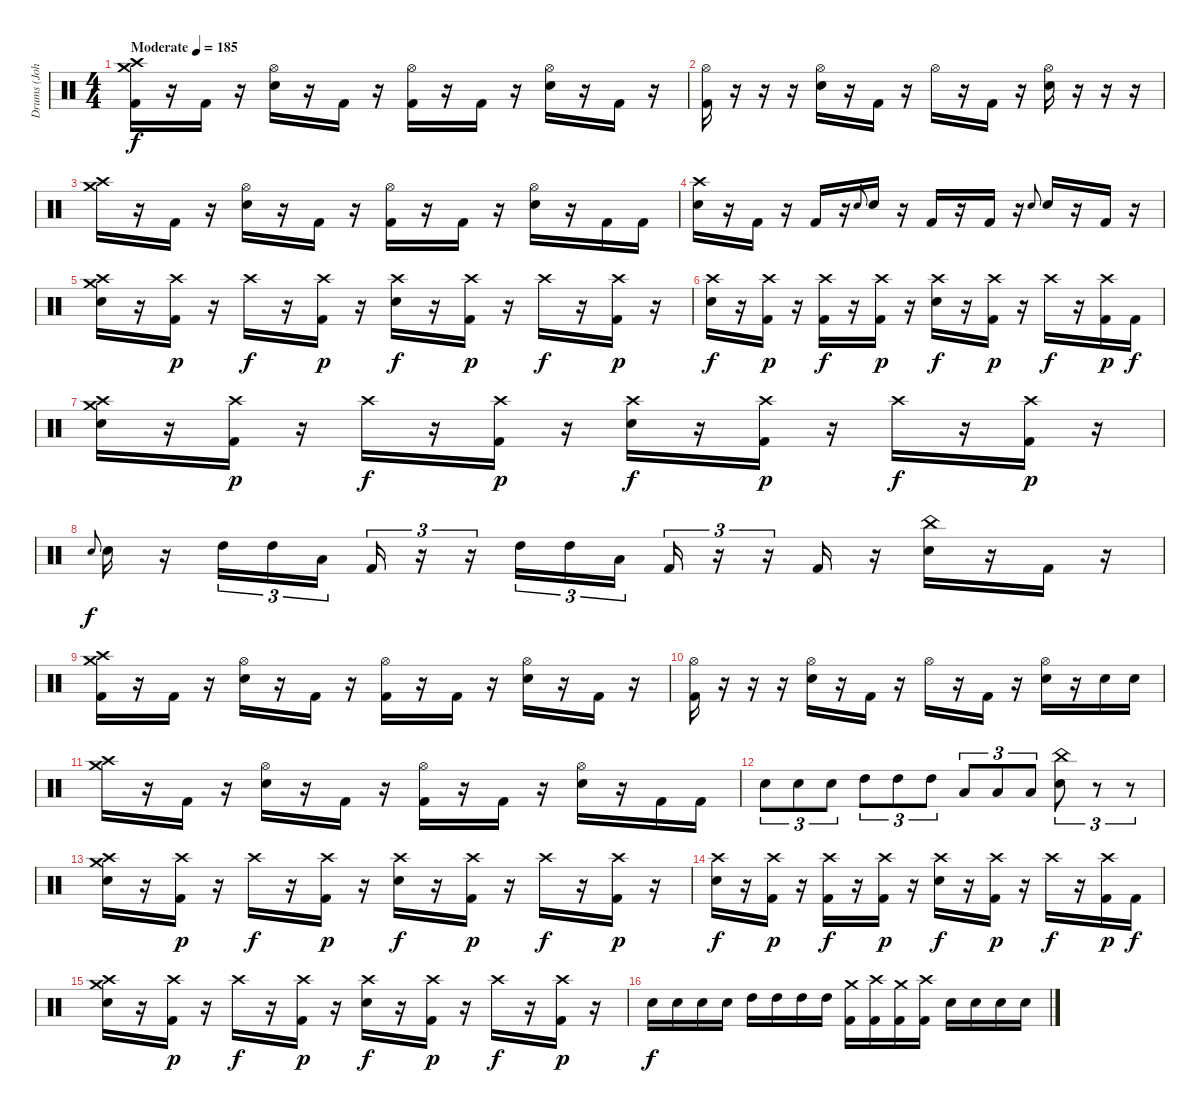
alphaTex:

\track ("Drums (Johno)" "Drums (Joh") {instrument percussion}
\staff {score}
\articulation defaults
\ts (4 4)
\tempo (185 "Moderate")
\clef neutral
\ks c
("Crash medium (hit)" "Crash high (hit)" "Kick (hit) 2").16{dy f} r.16 "Kick (hit) 2".16 r.16 ("Hi-Hat (open)" "Electric Snare (hit)").16 r.16 "Kick (hit) 2".16 r.16 ("Hi-Hat (open)" "Kick (hit) 2").16 r.16 "Kick (hit) 2".16 r.16 ("Hi-Hat (open)" "Electric Snare (hit)").16 r.16 "Kick (hit) 2".16 r.16 |
("Hi-Hat (open)" "Kick (hit) 2").16 r.16 r.16 r.16 ("Hi-Hat (open)" "Electric Snare (hit)").16 r.16 "Kick (hit) 2".16 r.16 "Hi-Hat (open)".16 r.16 "Kick (hit) 2".16 r.16 ("Hi-Hat (open)" "Electric Snare (hit)").16 r.16 r.16 r.16 |
("Crash medium (hit)" "Crash high (hit)").16 r.16 "Kick (hit) 2".16 r.16 ("Hi-Hat (open)" "Electric Snare (hit)").16 r.16 "Kick (hit) 2".16 r.16 ("Hi-Hat (open)" "Kick (hit) 2").16 r.16 "Kick (hit) 2".16 r.16 ("Hi-Hat (open)" "Electric Snare (hit)").16 r.16 "Kick (hit) 2".16 "Kick (hit) 2".16 |
("Crash high (hit)" "Electric Snare (hit)").16 r.16 "Kick (hit) 2".16 r.16 "Kick (hit) 2".16 r.16 "Electric Snare (hit)".8{gr onbeat} "Electric Snare (hit)".16 r.16 "Kick (hit) 2".16 r.16 "Kick (hit) 2".16 r.16 "Electric Snare (hit)".8{gr onbeat} "Electric Snare (hit)".16 r.16 "Kick (hit) 2".16 r.16 |
("Crash medium (hit)" "Crash high (hit)" "Electric Snare (hit)").16 r.16 ("Crash high (hit)" "Kick (hit) 2").16{dy p} r.16 "Crash high (hit)".16{dy f} r.16 ("Crash high (hit)" "Kick (hit) 2").16{dy p} r.16 ("Crash high (hit)" "Electric Snare (hit)").16{dy f} r.16 ("Crash high (hit)" "Kick (hit) 2").16{dy p} r.16 "Crash high (hit)".16{dy f} r.16 ("Crash high (hit)" "Kick (hit) 2").16{dy p} r.16 |
("Crash high (hit)" "Electric Snare (hit)").16{dy f} r.16 ("Crash high (hit)" "Kick (hit) 2").16{dy p} r.16 ("Crash high (hit)" "Kick (hit) 2").16{dy f} r.16 ("Crash high (hit)" "Kick (hit) 2").16{dy p} r.16 ("Crash high (hit)" "Electric Snare (hit)").16{dy f} r.16 ("Crash high (hit)" "Kick (hit) 2").16{dy p} r.16 "Crash high (hit)".16{dy f} r.16 ("Crash high (hit)" "Kick (hit) 2").16{dy p} "Kick (hit) 2".16{dy f} |
("Crash medium (hit)" "Crash high (hit)" "Electric Snare (hit)").16 r.16 ("Crash high (hit)" "Kick (hit) 2").16{dy p} r.16 "Crash high (hit)".16{dy f} r.16 ("Crash high (hit)" "Kick (hit) 2").16{dy p} r.16 ("Crash high (hit)" "Electric Snare (hit)").16{dy f} r.16 ("Crash high (hit)" "Kick (hit) 2").16{dy p} r.16 "Crash high (hit)".16{dy f} r.16 ("Crash high (hit)" "Kick (hit) 2").16{dy p} r.16 |
"Electric Snare (hit)".8{gr onbeat dy f} "Electric Snare (hit)".16 r.16 "High Tom (hit)".16{tu (3 2)} "High Tom (hit)".16{tu (3 2)} "Low Floor Tom (hit)".16{tu (3 2)} "Kick (hit) 2".16{tu (3 2)} r.16{tu (3 2)} r.16{tu (3 2)} "High Tom (hit)".16{tu (3 2)} "High Tom (hit)".16{tu (3 2)} "Low Floor Tom (hit)".16{tu (3 2)} "Kick (hit) 2".16{tu (3 2)} r.16{tu (3 2)} r.16{tu (3 2)} "Kick (hit) 2".16 r.16 ("China (hit)" "Electric Snare (hit)").16 r.16 "Kick (hit) 2".16 r.16 |
("Crash medium (hit)" "Crash high (hit)" "Kick (hit) 2").16 r.16 "Kick (hit) 2".16 r.16 ("Hi-Hat (open)" "Electric Snare (hit)").16 r.16 "Kick (hit) 2".16 r.16 ("Hi-Hat (open)" "Kick (hit) 2").16 r.16 "Kick (hit) 2".16 r.16 ("Hi-Hat (open)" "Electric Snare (hit)").16 r.16 "Kick (hit) 2".16 r.16 |
("Hi-Hat (open)" "Kick (hit) 2").16 r.16 r.16 r.16 ("Hi-Hat (open)" "Electric Snare (hit)").16 r.16 "Kick (hit) 2".16 r.16 "Hi-Hat (open)".16 r.16 "Kick (hit) 2".16 r.16 ("Hi-Hat (open)" "Electric Snare (hit)").16 r.16 "Electric Snare (hit)".16 "Electric Snare (hit)".16 |
("Crash medium (hit)" "Crash high (hit)").16 r.16 "Kick (hit) 2".16 r.16 ("Hi-Hat (open)" "Electric Snare (hit)").16 r.16 "Kick (hit) 2".16 r.16 ("Hi-Hat (open)" "Kick (hit) 2").16 r.16 "Kick (hit) 2".16 r.16 ("Hi-Hat (open)" "Electric Snare (hit)").16 r.16 "Kick (hit) 2".16 "Kick (hit) 2".16 |
"Electric Snare (hit)".8{tu (3 2)} "Electric Snare (hit)".8{tu (3 2)} "Electric Snare (hit)".8{tu (3 2)} "High Tom (hit)".8{tu (3 2)} "High Tom (hit)".8{tu (3 2)} "High Tom (hit)".8{tu (3 2)} "Low Floor Tom (hit)".8{tu (3 2)} "Low Floor Tom (hit)".8{tu (3 2)} "Low Floor Tom (hit)".8{tu (3 2)} ("China (hit)" "Electric Snare (hit)").8{tu (3 2)} r.8{tu (3 2)} r.8{tu (3 2)} |
("Crash medium (hit)" "Crash high (hit)" "Electric Snare (hit)").16 r.16 ("Crash high (hit)" "Kick (hit) 2").16{dy p} r.16 "Crash high (hit)".16{dy f} r.16 ("Crash high (hit)" "Kick (hit) 2").16{dy p} r.16 ("Crash high (hit)" "Electric Snare (hit)").16{dy f} r.16 ("Crash high (hit)" "Kick (hit) 2").16{dy p} r.16 "Crash high (hit)".16{dy f} r.16 ("Crash high (hit)" "Kick (hit) 2").16{dy p} r.16 |
("Crash high (hit)" "Electric Snare (hit)").16{dy f} r.16 ("Crash high (hit)" "Kick (hit) 2").16{dy p} r.16 ("Crash high (hit)" "Kick (hit) 2").16{dy f} r.16 ("Crash high (hit)" "Kick (hit) 2").16{dy p} r.16 ("Crash high (hit)" "Electric Snare (hit)").16{dy f} r.16 ("Crash high (hit)" "Kick (hit) 2").16{dy p} r.16 "Crash high (hit)".16{dy f} r.16 ("Crash high (hit)" "Kick (hit) 2").16{dy p} "Kick (hit) 2".16{dy f} |
("Crash medium (hit)" "Crash high (hit)" "Electric Snare (hit)").16 r.16 ("Crash high (hit)" "Kick (hit) 2").16{dy p} r.16 "Crash high (hit)".16{dy f} r.16 ("Crash high (hit)" "Kick (hit) 2").16{dy p} r.16 ("Crash high (hit)" "Electric Snare (hit)").16{dy f} r.16 ("Crash high (hit)" "Kick (hit) 2").16{dy p} r.16 "Crash high (hit)".16{dy f} r.16 ("Crash high (hit)" "Kick (hit) 2").16{dy p} r.16 |
"Electric Snare (hit)".16{dy f} "Electric Snare (hit)".16 "Electric Snare (hit)".16 "Electric Snare (hit)".16 "High Tom (hit)".16 "High Tom (hit)".16 "High Tom (hit)".16 "High Tom (hit)".16 ("Crash medium (hit)" "Kick (hit) 2").16 ("Crash high (hit)" "Kick (hit) 2").16 ("Crash medium (hit)" "Kick (hit) 2").16 ("Crash high (hit)" "Kick (hit) 2").16 "Electric Snare (hit)".16 "Electric Snare (hit)".16 "Electric Snare (hit)".16 "Electric Snare (hit)".16
